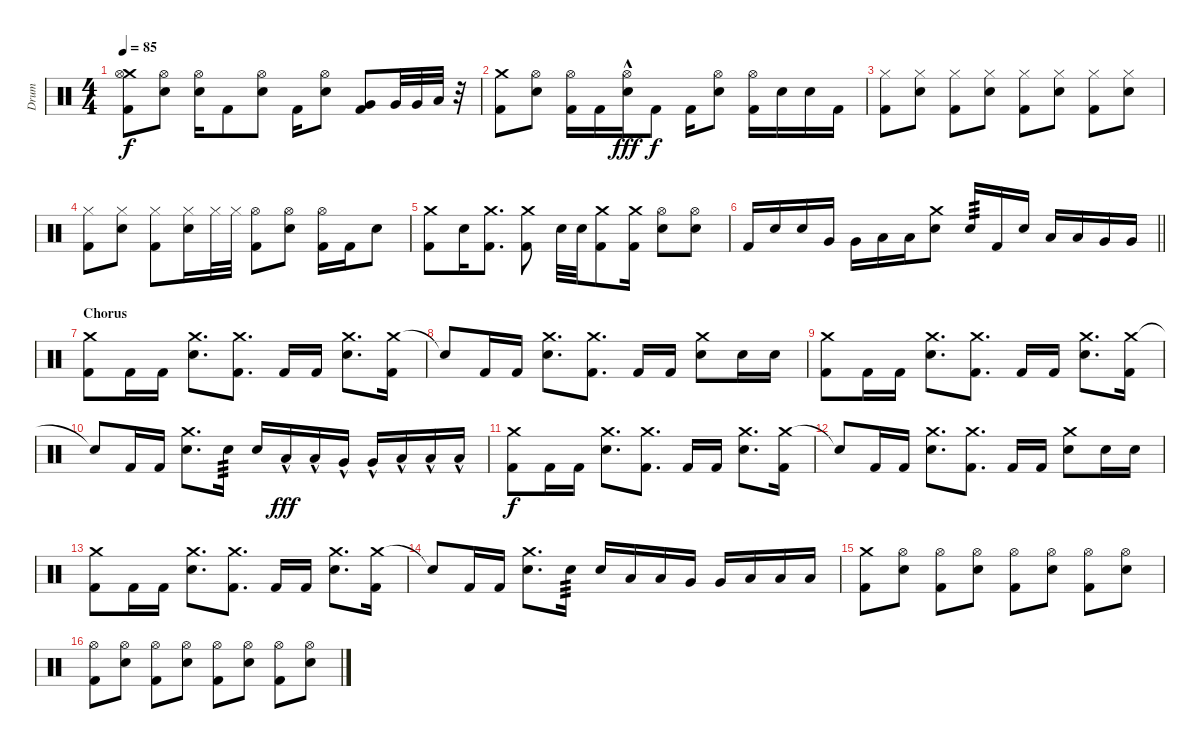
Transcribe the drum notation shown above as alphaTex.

\track ("Drum" "Drum") {instrument percussion}
\staff {score}
\articulation defaults
\ts (4 4)
\tempo 85
\clef neutral
\ks c
("Crash medium (hit)" "Hi-Hat (open)" "Kick (hit) 2").8{dy f} ("Hi-Hat (open)" "Electric Snare (hit)").8 ("Hi-Hat (open)" "Electric Snare (hit)").16 "Kick (hit) 2".8 ("Hi-Hat (open)" "Electric Snare (hit)").8 "Kick (hit) 2".16 ("Hi-Hat (open)" "Electric Snare (hit)").8 ("Very Low Tom (hit)" "Kick (hit) 2").8 "Very Low Tom (hit)".32 "Very Low Tom (hit)".32 "Low Floor Tom (hit)".32 r.32 |
("Crash medium (hit)" "Kick (hit) 2").8 ("Hi-Hat (open)" "Electric Snare (hit)").8 ("Hi-Hat (open)" "Kick (hit) 2").16 "Kick (hit) 2".16 ("Hi-Hat (open)"{hac} "Electric Snare (hit)").16{dy fff} "Kick (hit) 2".8{dy f} "Kick (hit) 2".16 ("Hi-Hat (open)" "Electric Snare (hit)").8 ("Hi-Hat (open)" "Kick (hit) 2").16 "Electric Snare (hit)".16 "Electric Snare (hit)".16 "Kick (hit) 2".16 |
("Hi-Hat (closed)" "Kick (hit) 2").8 ("Hi-Hat (closed)" "Electric Snare (hit)").8 ("Hi-Hat (closed)" "Kick (hit) 2").8 ("Hi-Hat (closed)" "Electric Snare (hit)").8 ("Hi-Hat (closed)" "Kick (hit) 2").8 ("Hi-Hat (closed)" "Electric Snare (hit)").8 ("Hi-Hat (closed)" "Kick (hit) 2").8 ("Hi-Hat (closed)" "Electric Snare (hit)").8 |
("Hi-Hat (closed)" "Kick (hit) 2").8 ("Hi-Hat (closed)" "Electric Snare (hit)").8 ("Hi-Hat (closed)" "Kick (hit) 2").8 ("Hi-Hat (closed)" "Electric Snare (hit)").16 "Hi-Hat (closed)".32 "Hi-Hat (closed)".32 ("Hi-Hat (open)" "Kick (hit) 2").8 ("Hi-Hat (open)" "Electric Snare (hit)").8 ("Hi-Hat (open)" "Kick (hit) 2").16 "Kick (hit) 2".16 "Electric Snare (hit)".8 |
("Crash medium (hit)" "Kick (hit) 2").8 "Electric Snare (hit)".16 ("Crash medium (hit)" "Kick (hit) 2").8{d} ("Crash medium (hit)" "Kick (hit) 2").8 "Electric Snare (hit)".32 "Electric Snare (hit)".32 ("Crash medium (hit)" "Kick (hit) 2").8 ("Crash medium (hit)" "Kick (hit) 2").16 ("Hi-Hat (open)" "Electric Snare (hit)").8 ("Hi-Hat (open)" "Electric Snare (hit)").8 |
\barLineRight lightlight "Kick (hit) 2".16 "Electric Snare (hit)".16 "Electric Snare (hit)".16 "Very Low Tom (hit)".16 "Very Low Tom (hit)".16 "Low Tom (hit)".16 "Low Tom (hit)".16
("Crash medium (hit)" "Electric Snare (hit)").8 "Electric Snare (hit)".16{tp 3} "Kick (hit) 2".16 "Electric Snare (hit)".16 "Low Tom (hit)".16 "Low Tom (hit)".16 "Very Low Tom (hit)".16 "Very Low Tom (hit)".16 |
\section ("" "Chorus")
("Crash medium (hit)" "Kick (hit) 2").8 "Kick (hit) 2".16 "Kick (hit) 2".16 ("Crash medium (hit)" "Electric Snare (hit)").8{d} ("Crash medium (hit)" "Kick (hit) 2").8{d} "Kick (hit) 2".16 "Kick (hit) 2".16 ("Crash medium (hit)" "Electric Snare (hit)").8{d} ("Crash medium (hit)" "Kick (hit) 2").16 |
"Snare (hit)"{t}.8 "Kick (hit) 2".16 "Kick (hit) 2".16 ("Crash medium (hit)" "Electric Snare (hit)").8{d} ("Crash medium (hit)" "Kick (hit) 2").8{d} "Kick (hit) 2".16 "Kick (hit) 2".16 ("Crash medium (hit)" "Electric Snare (hit)").8 "Electric Snare (hit)".16 "Electric Snare (hit)".16 |
("Crash medium (hit)" "Kick (hit) 2").8 "Kick (hit) 2".16 "Kick (hit) 2".16 ("Crash medium (hit)" "Electric Snare (hit)").8{d} ("Crash medium (hit)" "Kick (hit) 2").8{d} "Kick (hit) 2".16 "Kick (hit) 2".16 ("Crash medium (hit)" "Electric Snare (hit)").8{d} ("Crash medium (hit)" "Kick (hit) 2").16 |
"Snare (hit)"{t}.8 "Kick (hit) 2".16 "Kick (hit) 2".16 ("Crash medium (hit)" "Electric Snare (hit)").8{d} "Electric Snare (hit)".16{tp 3} "Electric Snare (hit)".16 "Low Tom (hit)"{hac}.16{dy fff} "Low Tom (hit)"{hac}.16 "Very Low Tom (hit)"{hac}.16 "Very Low Tom (hit)"{hac}.16 "Low Floor Tom (hit)"{hac}.16 "Low Floor Tom (hit)"{hac}.16 "Low Floor Tom (hit)"{hac}.16 |
("Crash medium (hit)" "Kick (hit) 2").8{dy f} "Kick (hit) 2".16 "Kick (hit) 2".16 ("Crash medium (hit)" "Electric Snare (hit)").8{d} ("Crash medium (hit)" "Kick (hit) 2").8{d} "Kick (hit) 2".16 "Kick (hit) 2".16 ("Crash medium (hit)" "Electric Snare (hit)").8{d} ("Crash medium (hit)" "Kick (hit) 2").16 |
"Snare (hit)"{t}.8 "Kick (hit) 2".16 "Kick (hit) 2".16 ("Crash medium (hit)" "Electric Snare (hit)").8{d} ("Crash medium (hit)" "Kick (hit) 2").8{d} "Kick (hit) 2".16 "Kick (hit) 2".16 ("Crash medium (hit)" "Electric Snare (hit)").8 "Electric Snare (hit)".16 "Electric Snare (hit)".16 |
("Crash medium (hit)" "Kick (hit) 2").8 "Kick (hit) 2".16 "Kick (hit) 2".16 ("Crash medium (hit)" "Electric Snare (hit)").8{d} ("Crash medium (hit)" "Kick (hit) 2").8{d} "Kick (hit) 2".16 "Kick (hit) 2".16 ("Crash medium (hit)" "Electric Snare (hit)").8{d} ("Crash medium (hit)" "Kick (hit) 2").16 |
"Snare (hit)"{t}.8 "Kick (hit) 2".16 "Kick (hit) 2".16 ("Crash medium (hit)" "Electric Snare (hit)").8{d} "Electric Snare (hit)".16{tp 3} "Electric Snare (hit)".16 "Low Tom (hit)".16 "Low Tom (hit)".16 "Very Low Tom (hit)".16 "Very Low Tom (hit)".16 "Low Floor Tom (hit)".16 "Low Floor Tom (hit)".16 "Low Floor Tom (hit)".16 |
("Crash medium (hit)" "Kick (hit) 2").8{volume 14} ("Hi-Hat (open)" "Electric Snare (hit)").8 ("Hi-Hat (open)" "Kick (hit) 2").8 ("Hi-Hat (open)" "Electric Snare (hit)").8 ("Hi-Hat (open)" "Kick (hit) 2").8 ("Hi-Hat (open)" "Electric Snare (hit)").8 ("Hi-Hat (open)" "Kick (hit) 2").8 ("Hi-Hat (open)" "Electric Snare (hit)").8 |
("Hi-Hat (open)" "Kick (hit) 2").8 ("Hi-Hat (open)" "Electric Snare (hit)").8 ("Hi-Hat (open)" "Kick (hit) 2").8 ("Hi-Hat (open)" "Electric Snare (hit)").8 ("Hi-Hat (open)" "Kick (hit) 2").8 ("Hi-Hat (open)" "Electric Snare (hit)").8 ("Hi-Hat (open)" "Kick (hit) 2").8 ("Hi-Hat (open)" "Electric Snare (hit)").8
